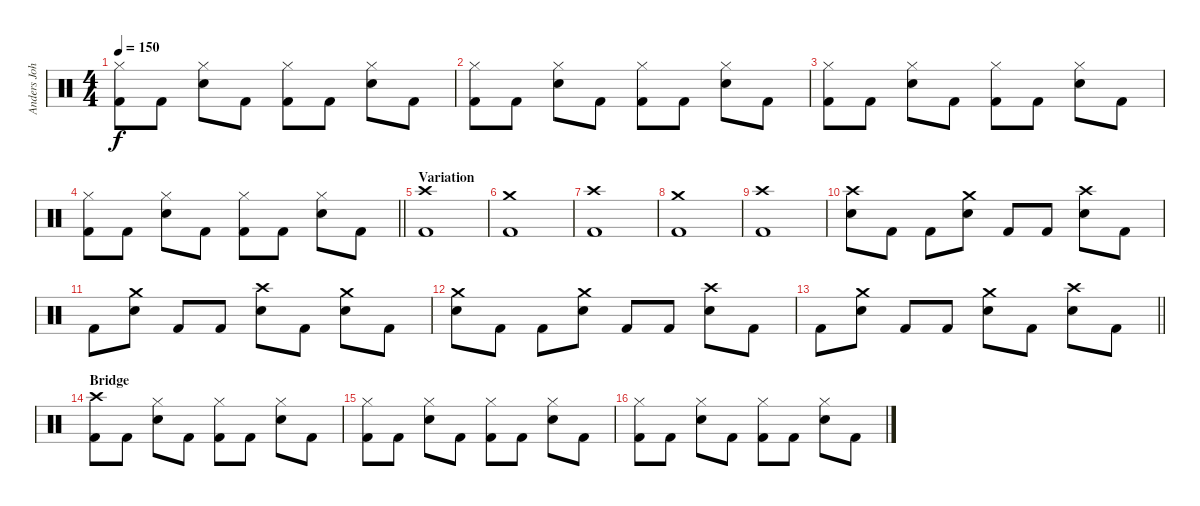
\track ("Anders Johansson" "Anders Joh") {instrument percussion}
\staff {score}
\articulation defaults
\ts (4 4)
\tempo 150
\clef neutral
\ks c
("Hi-Hat (closed)" "Kick (hit) 2").8{dy f} "Kick (hit) 2".8 ("Hi-Hat (closed)" "Snare (hit) 2").8 "Kick (hit) 2".8 ("Hi-Hat (closed)" "Kick (hit) 2").8 "Kick (hit) 2".8 ("Hi-Hat (closed)" "Snare (hit) 2").8 "Kick (hit) 2".8 |
("Hi-Hat (closed)" "Kick (hit) 2").8 "Kick (hit) 2".8 ("Hi-Hat (closed)" "Snare (hit) 2").8 "Kick (hit) 2".8 ("Hi-Hat (closed)" "Kick (hit) 2").8 "Kick (hit) 2".8 ("Hi-Hat (closed)" "Snare (hit) 2").8 "Kick (hit) 2".8 |
("Hi-Hat (closed)" "Kick (hit) 2").8 "Kick (hit) 2".8 ("Hi-Hat (closed)" "Snare (hit) 2").8 "Kick (hit) 2".8 ("Hi-Hat (closed)" "Kick (hit) 2").8 "Kick (hit) 2".8 ("Hi-Hat (closed)" "Snare (hit) 2").8 "Kick (hit) 2".8 |
\barLineRight lightlight
("Hi-Hat (closed)" "Kick (hit) 2").8 "Kick (hit) 2".8 ("Hi-Hat (closed)" "Snare (hit) 2").8 "Kick (hit) 2".8 ("Hi-Hat (closed)" "Kick (hit) 2").8 "Kick (hit) 2".8 ("Hi-Hat (closed)" "Snare (hit) 2").8 "Kick (hit) 2".8 |
\section ("" "Variation")
("Crash high (hit)" "Kick (hit) 2").1 |
("Crash medium (hit)" "Kick (hit) 2").1 |
("Crash high (hit)" "Kick (hit) 2").1 |
("Crash medium (hit)" "Kick (hit) 2").1 |
("Crash high (hit)" "Kick (hit) 2").1 |
("Crash high (hit)" "Snare (hit) 2").8 "Kick (hit) 2".8 "Kick (hit) 2".8 ("Crash medium (hit)" "Snare (hit) 2").8 "Kick (hit) 2".8 "Kick (hit) 2".8 ("Crash high (hit)" "Snare (hit) 2").8 "Kick (hit) 2".8 |
"Kick (hit) 2".8 ("Crash medium (hit)" "Snare (hit) 2").8 "Kick (hit) 2".8 "Kick (hit) 2".8 ("Crash high (hit)" "Snare (hit) 2").8 "Kick (hit) 2".8 ("Crash medium (hit)" "Snare (hit) 2").8 "Kick (hit) 2".8 |
("Crash medium (hit)" "Snare (hit) 2").8 "Kick (hit) 2".8 "Kick (hit) 2".8 ("Crash medium (hit)" "Snare (hit) 2").8 "Kick (hit) 2".8 "Kick (hit) 2".8 ("Crash high (hit)" "Snare (hit) 2").8 "Kick (hit) 2".8 |
\barLineRight lightlight "Kick (hit) 2".8
("Crash medium (hit)" "Snare (hit) 2").8 "Kick (hit) 2".8 "Kick (hit) 2".8 ("Crash medium (hit)" "Snare (hit) 2").8 "Kick (hit) 2".8 ("Crash high (hit)" "Snare (hit) 2").8 "Kick (hit) 2".8 |
\section ("" "Bridge")
("Crash high (hit)" "Kick (hit) 2").8 "Kick (hit) 2".8 ("Hi-Hat (closed)" "Snare (hit) 2").8 "Kick (hit) 2".8 ("Hi-Hat (closed)" "Kick (hit) 2").8 "Kick (hit) 2".8 ("Hi-Hat (closed)" "Snare (hit) 2").8 "Kick (hit) 2".8 |
("Hi-Hat (closed)" "Kick (hit) 2").8 "Kick (hit) 2".8 ("Hi-Hat (closed)" "Snare (hit) 2").8 "Kick (hit) 2".8 ("Hi-Hat (closed)" "Kick (hit) 2").8 "Kick (hit) 2".8 ("Hi-Hat (closed)" "Snare (hit) 2").8 "Kick (hit) 2".8 |
("Hi-Hat (closed)" "Kick (hit) 2").8 "Kick (hit) 2".8 ("Hi-Hat (closed)" "Snare (hit) 2").8 "Kick (hit) 2".8 ("Hi-Hat (closed)" "Kick (hit) 2").8 "Kick (hit) 2".8 ("Hi-Hat (closed)" "Snare (hit) 2").8 "Kick (hit) 2".8
